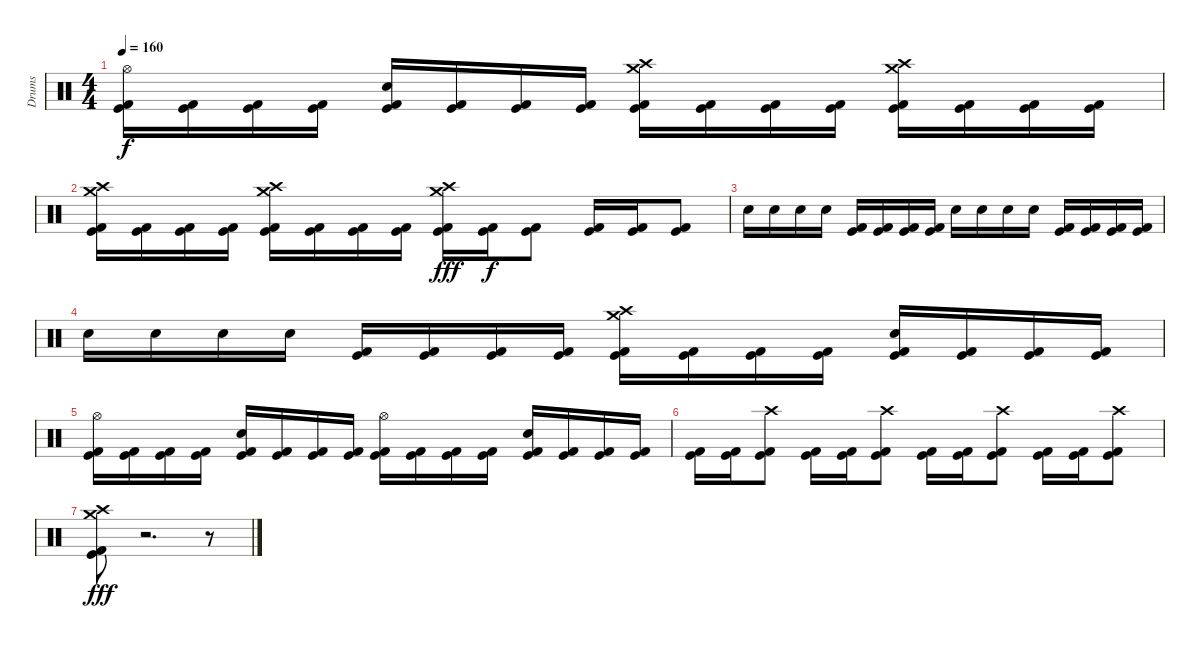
\track ("Drums" "Drums") {instrument percussion}
\staff {score}
\articulation defaults
\ts (4 4)
\tempo 160
\clef neutral
\ks c
("Hi-Hat (open)" "Kick (hit)" "Kick (hit) 2").16{dy f} ("Kick (hit)" "Kick (hit) 2").16 ("Kick (hit)" "Kick (hit) 2").16 ("Kick (hit)" "Kick (hit) 2").16 ("Snare (hit) 2" "Kick (hit)" "Kick (hit) 2").16 ("Kick (hit)" "Kick (hit) 2").16 ("Kick (hit)" "Kick (hit) 2").16 ("Kick (hit)" "Kick (hit) 2").16 ("Crash high (hit)" "Crash medium (hit)" "Kick (hit)" "Kick (hit) 2").16 ("Kick (hit)" "Kick (hit) 2").16 ("Kick (hit)" "Kick (hit) 2").16 ("Kick (hit)" "Kick (hit) 2").16 ("Crash high (hit)" "Crash medium (hit)" "Kick (hit)" "Kick (hit) 2").16 ("Kick (hit)" "Kick (hit) 2").16 ("Kick (hit)" "Kick (hit) 2").16 ("Kick (hit)" "Kick (hit) 2").16 |
("Crash high (hit)" "Crash medium (hit)" "Kick (hit)" "Kick (hit) 2").16 ("Kick (hit)" "Kick (hit) 2").16 ("Kick (hit)" "Kick (hit) 2").16 ("Kick (hit)" "Kick (hit) 2").16 ("Crash high (hit)" "Crash medium (hit)" "Kick (hit)" "Kick (hit) 2").16 ("Kick (hit)" "Kick (hit) 2").16 ("Kick (hit)" "Kick (hit) 2").16 ("Kick (hit)" "Kick (hit) 2").16 ("Crash high (hit)" "Crash medium (hit)" "Kick (hit)" "Kick (hit) 2").16{dy fff} ("Kick (hit)" "Kick (hit) 2").16{dy f} ("Kick (hit)" "Kick (hit) 2").8 ("Kick (hit)" "Kick (hit) 2").16 ("Kick (hit)" "Kick (hit) 2").16 ("Kick (hit)" "Kick (hit) 2").8 |
"Snare (hit) 2".16 "Snare (hit) 2".16 "Snare (hit) 2".16 "Snare (hit) 2".16 ("Kick (hit)" "Kick (hit) 2").16 ("Kick (hit)" "Kick (hit) 2").16 ("Kick (hit)" "Kick (hit) 2").16 ("Kick (hit)" "Kick (hit) 2").16 "Snare (hit) 2".16 "Snare (hit) 2".16 "Snare (hit) 2".16 "Snare (hit) 2".16 ("Kick (hit)" "Kick (hit) 2").16 ("Kick (hit)" "Kick (hit) 2").16 ("Kick (hit)" "Kick (hit) 2").16 ("Kick (hit)" "Kick (hit) 2").16 |
"Snare (hit) 2".16 "Snare (hit) 2".16 "Snare (hit) 2".16 "Snare (hit) 2".16 ("Kick (hit)" "Kick (hit) 2").16 ("Kick (hit)" "Kick (hit) 2").16 ("Kick (hit)" "Kick (hit) 2").16 ("Kick (hit)" "Kick (hit) 2").16 ("Crash high (hit)" "Crash medium (hit)" "Kick (hit)" "Kick (hit) 2").16 ("Kick (hit)" "Kick (hit) 2").16 ("Kick (hit)" "Kick (hit) 2").16 ("Kick (hit)" "Kick (hit) 2").16 ("Snare (hit) 2" "Kick (hit)" "Kick (hit) 2").16 ("Kick (hit)" "Kick (hit) 2").16 ("Kick (hit)" "Kick (hit) 2").16 ("Kick (hit)" "Kick (hit) 2").16 |
("Hi-Hat (open)" "Kick (hit)" "Kick (hit) 2").16 ("Kick (hit)" "Kick (hit) 2").16 ("Kick (hit)" "Kick (hit) 2").16 ("Kick (hit)" "Kick (hit) 2").16 ("Snare (hit) 2" "Kick (hit)" "Kick (hit) 2").16 ("Kick (hit)" "Kick (hit) 2").16 ("Kick (hit)" "Kick (hit) 2").16 ("Kick (hit)" "Kick (hit) 2").16 ("Hi-Hat (open)" "Kick (hit)" "Kick (hit) 2").16 ("Kick (hit)" "Kick (hit) 2").16 ("Kick (hit)" "Kick (hit) 2").16 ("Kick (hit)" "Kick (hit) 2").16 ("Snare (hit) 2" "Kick (hit)" "Kick (hit) 2").16 ("Kick (hit)" "Kick (hit) 2").16 ("Kick (hit)" "Kick (hit) 2").16 ("Kick (hit)" "Kick (hit) 2").16 |
("Kick (hit)" "Kick (hit) 2").16 ("Kick (hit)" "Kick (hit) 2").16 ("Crash high (hit)" "Kick (hit)" "Kick (hit) 2").8 ("Kick (hit)" "Kick (hit) 2").16 ("Kick (hit)" "Kick (hit) 2").16 ("Crash high (hit)" "Kick (hit)" "Kick (hit) 2").8 ("Kick (hit)" "Kick (hit) 2").16 ("Kick (hit)" "Kick (hit) 2").16 ("Crash high (hit)" "Kick (hit)" "Kick (hit) 2").8 ("Kick (hit)" "Kick (hit) 2").16 ("Kick (hit)" "Kick (hit) 2").16 ("Crash high (hit)" "Kick (hit)" "Kick (hit) 2").8 |
("Crash high (hit)" "Crash medium (hit)" "Kick (hit)" "Kick (hit) 2").8{dy fff} r.2{d} r.8
